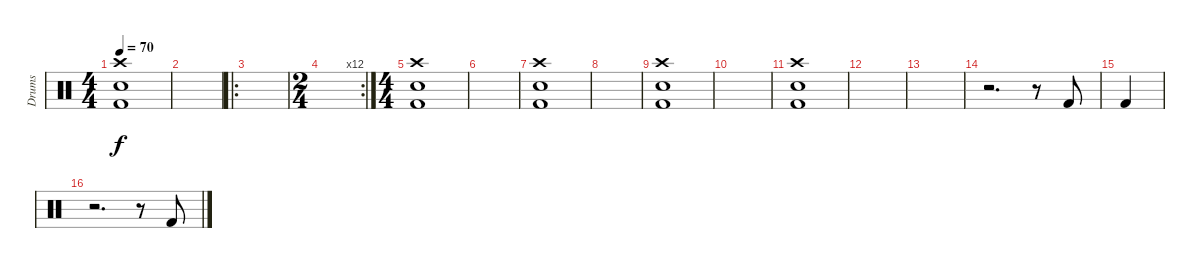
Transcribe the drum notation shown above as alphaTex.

\track ("Drums" "Drums") {instrument percussion}
\staff {score}
\articulation defaults
\ts (4 4)
\tempo 70
\clef neutral
\ks c
("Crash high (hit)" "Snare (hit) 2" "Kick (hit) 2").1{dy f} |
|
\ro
|
\rc 12
\ts (2 4)
|
\ts (4 4)
("Crash high (hit)" "Snare (hit) 2" "Kick (hit) 2").1 |
|
("Crash high (hit)" "Snare (hit) 2" "Kick (hit) 2").1 |
|
("Crash high (hit)" "Snare (hit) 2" "Kick (hit) 2").1 |
|
("Crash high (hit)" "Snare (hit) 2" "Kick (hit) 2").1 |
|
|
r.2{d} r.8 "Kick (hit) 2".8 |
"Kick (hit) 2".4 |
r.2{d} r.8 "Kick (hit) 2".8
